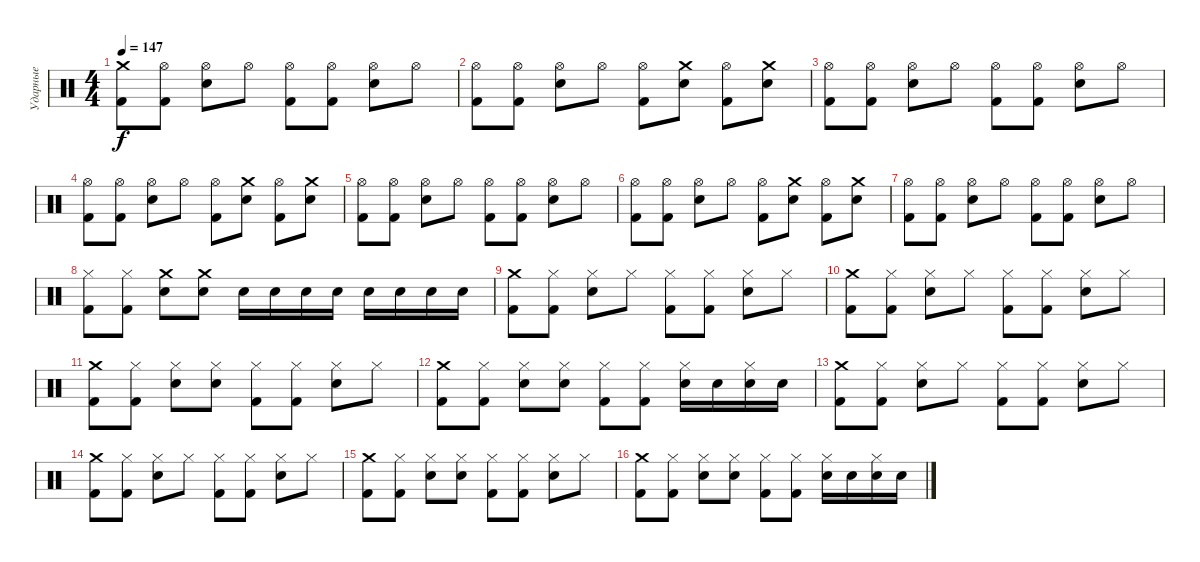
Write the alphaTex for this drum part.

\track ("Ударные" "Ударные") {instrument percussion}
\staff {score}
\articulation defaults
\ts (4 4)
\tempo 147
\clef neutral
\ks c
("Crash medium (hit)" "Kick (hit) 2").8{dy f} ("Hi-Hat (open)" "Kick (hit) 2").8 ("Hi-Hat (open)" "Electric Snare (hit)").8 "Hi-Hat (open)".8 ("Hi-Hat (open)" "Kick (hit) 2").8 ("Hi-Hat (open)" "Kick (hit) 2").8 ("Hi-Hat (open)" "Electric Snare (hit)").8 "Hi-Hat (open)".8 |
("Hi-Hat (open)" "Kick (hit) 2").8 ("Hi-Hat (open)" "Kick (hit) 2").8 ("Hi-Hat (open)" "Electric Snare (hit)").8 "Hi-Hat (open)".8 ("Hi-Hat (open)" "Kick (hit) 2").8 ("Crash medium (hit)" "Electric Snare (hit)").8 ("Hi-Hat (open)" "Kick (hit) 2").8 ("Crash medium (hit)" "Electric Snare (hit)").8 |
("Hi-Hat (open)" "Kick (hit) 2").8 ("Hi-Hat (open)" "Kick (hit) 2").8 ("Hi-Hat (open)" "Electric Snare (hit)").8 "Hi-Hat (open)".8 ("Hi-Hat (open)" "Kick (hit) 2").8 ("Hi-Hat (open)" "Kick (hit) 2").8 ("Hi-Hat (open)" "Electric Snare (hit)").8 "Hi-Hat (open)".8 |
("Hi-Hat (open)" "Kick (hit) 2").8 ("Hi-Hat (open)" "Kick (hit) 2").8 ("Hi-Hat (open)" "Electric Snare (hit)").8 "Hi-Hat (open)".8 ("Hi-Hat (open)" "Kick (hit) 2").8 ("Crash medium (hit)" "Electric Snare (hit)").8 ("Hi-Hat (open)" "Kick (hit) 2").8 ("Crash medium (hit)" "Electric Snare (hit)").8 |
("Hi-Hat (open)" "Kick (hit) 2").8 ("Hi-Hat (open)" "Kick (hit) 2").8 ("Hi-Hat (open)" "Electric Snare (hit)").8 "Hi-Hat (open)".8 ("Hi-Hat (open)" "Kick (hit) 2").8 ("Hi-Hat (open)" "Kick (hit) 2").8 ("Hi-Hat (open)" "Electric Snare (hit)").8 "Hi-Hat (open)".8 |
("Hi-Hat (open)" "Kick (hit) 2").8 ("Hi-Hat (open)" "Kick (hit) 2").8 ("Hi-Hat (open)" "Electric Snare (hit)").8 "Hi-Hat (open)".8 ("Hi-Hat (open)" "Kick (hit) 2").8 ("Crash medium (hit)" "Electric Snare (hit)").8 ("Hi-Hat (open)" "Kick (hit) 2").8 ("Crash medium (hit)" "Electric Snare (hit)").8 |
("Hi-Hat (open)" "Kick (hit) 2").8 ("Hi-Hat (open)" "Kick (hit) 2").8 ("Hi-Hat (open)" "Electric Snare (hit)").8 "Hi-Hat (open)".8 ("Hi-Hat (open)" "Kick (hit) 2").8 ("Hi-Hat (open)" "Kick (hit) 2").8 ("Hi-Hat (open)" "Electric Snare (hit)").8 "Hi-Hat (open)".8 |
("Hi-Hat (closed)" "Kick (hit) 2").8 ("Hi-Hat (closed)" "Kick (hit) 2").8 ("Crash medium (hit)" "Electric Snare (hit)").8 ("Crash medium (hit)" "Electric Snare (hit)").8 "Electric Snare (hit)".16 "Electric Snare (hit)".16 "Electric Snare (hit)".16 "Electric Snare (hit)".16 "Electric Snare (hit)".16 "Electric Snare (hit)".16 "Electric Snare (hit)".16 "Electric Snare (hit)".16 |
("Crash medium (hit)" "Kick (hit) 2").8 ("Hi-Hat (closed)" "Kick (hit) 2").8 ("Hi-Hat (closed)" "Electric Snare (hit)").8 "Hi-Hat (closed)".8 ("Hi-Hat (closed)" "Kick (hit) 2").8 ("Hi-Hat (closed)" "Kick (hit) 2").8 ("Hi-Hat (closed)" "Electric Snare (hit)").8 "Hi-Hat (closed)".8 |
("Crash medium (hit)" "Kick (hit) 2").8 ("Hi-Hat (closed)" "Kick (hit) 2").8 ("Hi-Hat (closed)" "Electric Snare (hit)").8 "Hi-Hat (closed)".8 ("Hi-Hat (closed)" "Kick (hit) 2").8 ("Hi-Hat (closed)" "Kick (hit) 2").8 ("Hi-Hat (closed)" "Electric Snare (hit)").8 "Hi-Hat (closed)".8 |
("Crash medium (hit)" "Kick (hit) 2").8 ("Hi-Hat (closed)" "Kick (hit) 2").8 ("Hi-Hat (closed)" "Electric Snare (hit)").8 ("Hi-Hat (closed)" "Electric Snare (hit)").8 ("Hi-Hat (closed)" "Kick (hit) 2").8 ("Hi-Hat (closed)" "Kick (hit) 2").8 ("Hi-Hat (closed)" "Electric Snare (hit)").8 "Hi-Hat (closed)".8 |
("Crash medium (hit)" "Kick (hit) 2").8 ("Hi-Hat (closed)" "Kick (hit) 2").8 ("Hi-Hat (closed)" "Electric Snare (hit)").8 ("Hi-Hat (closed)" "Electric Snare (hit)").8 ("Hi-Hat (closed)" "Kick (hit) 2").8 ("Hi-Hat (closed)" "Kick (hit) 2").8 ("Hi-Hat (closed)" "Electric Snare (hit)").16 "Electric Snare (hit)".16 ("Hi-Hat (closed)" "Electric Snare (hit)").16 "Electric Snare (hit)".16 |
("Crash medium (hit)" "Kick (hit) 2").8 ("Hi-Hat (closed)" "Kick (hit) 2").8 ("Hi-Hat (closed)" "Electric Snare (hit)").8 "Hi-Hat (closed)".8 ("Hi-Hat (closed)" "Kick (hit) 2").8 ("Hi-Hat (closed)" "Kick (hit) 2").8 ("Hi-Hat (closed)" "Electric Snare (hit)").8 "Hi-Hat (closed)".8 |
("Crash medium (hit)" "Kick (hit) 2").8 ("Hi-Hat (closed)" "Kick (hit) 2").8 ("Hi-Hat (closed)" "Electric Snare (hit)").8 "Hi-Hat (closed)".8 ("Hi-Hat (closed)" "Kick (hit) 2").8 ("Hi-Hat (closed)" "Kick (hit) 2").8 ("Hi-Hat (closed)" "Electric Snare (hit)").8 "Hi-Hat (closed)".8 |
("Crash medium (hit)" "Kick (hit) 2").8 ("Hi-Hat (closed)" "Kick (hit) 2").8 ("Hi-Hat (closed)" "Electric Snare (hit)").8 ("Hi-Hat (closed)" "Electric Snare (hit)").8 ("Hi-Hat (closed)" "Kick (hit) 2").8 ("Hi-Hat (closed)" "Kick (hit) 2").8 ("Hi-Hat (closed)" "Electric Snare (hit)").8 "Hi-Hat (closed)".8 |
("Crash medium (hit)" "Kick (hit) 2").8 ("Hi-Hat (closed)" "Kick (hit) 2").8 ("Hi-Hat (closed)" "Electric Snare (hit)").8 ("Hi-Hat (closed)" "Electric Snare (hit)").8 ("Hi-Hat (closed)" "Kick (hit) 2").8 ("Hi-Hat (closed)" "Kick (hit) 2").8 ("Hi-Hat (closed)" "Electric Snare (hit)").16 "Electric Snare (hit)".16 ("Hi-Hat (closed)" "Electric Snare (hit)").16 "Electric Snare (hit)".16
